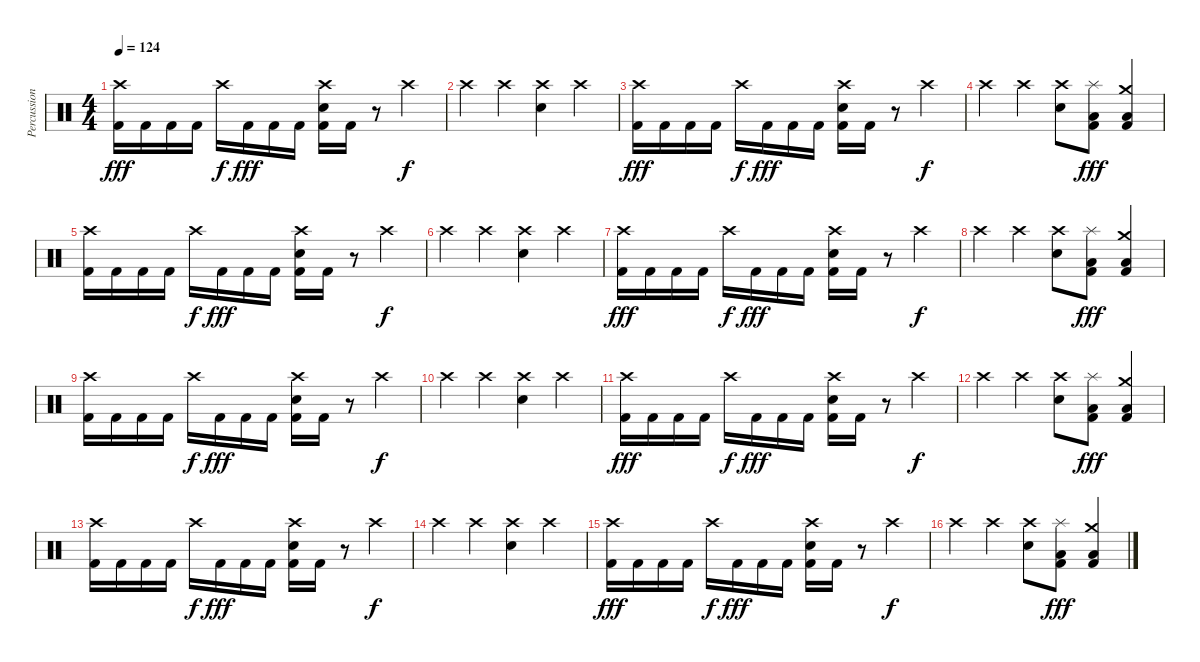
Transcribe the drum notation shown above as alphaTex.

\track ("Percussion" "Percussion") {instrument percussion}
\staff {score}
\articulation defaults
\ts (4 4)
\tempo 124
\clef neutral
\ks c
("Crash high (hit)" "Kick (hit) 2").16{dy fff} "Kick (hit) 2".16 "Kick (hit) 2".16 "Kick (hit) 2".16 "Crash high (hit)".16{dy f} "Kick (hit) 2".16{dy fff} "Kick (hit) 2".16 "Kick (hit) 2".16 ("Crash high (hit)" "Snare (hit) 2" "Kick (hit) 2").16 "Kick (hit) 2".16 r.8 "Crash high (hit)".4{dy f} |
"Crash high (hit)".4 "Crash high (hit)".4 ("Crash high (hit)" "Snare (hit) 2").4 "Crash high (hit)".4 |
("Crash high (hit)" "Kick (hit) 2").16{dy fff} "Kick (hit) 2".16 "Kick (hit) 2".16 "Kick (hit) 2".16 "Crash high (hit)".16{dy f} "Kick (hit) 2".16{dy fff} "Kick (hit) 2".16 "Kick (hit) 2".16 ("Crash high (hit)" "Snare (hit) 2" "Kick (hit) 2").16 "Kick (hit) 2".16 r.8 "Crash high (hit)".4{dy f} |
"Crash high (hit)".4 "Crash high (hit)".4 ("Crash high (hit)" "Snare (hit) 2").8 ("Splash (hit)" "Low Tom (hit)" "Kick (hit) 2").8{dy fff} ("Crash medium (hit)" "Low Floor Tom (hit)" "Kick (hit) 2").4 |
("Crash high (hit)" "Kick (hit) 2").16 "Kick (hit) 2".16 "Kick (hit) 2".16 "Kick (hit) 2".16 "Crash high (hit)".16{dy f} "Kick (hit) 2".16{dy fff} "Kick (hit) 2".16 "Kick (hit) 2".16 ("Crash high (hit)" "Snare (hit) 2" "Kick (hit) 2").16 "Kick (hit) 2".16 r.8 "Crash high (hit)".4{dy f} |
"Crash high (hit)".4 "Crash high (hit)".4 ("Crash high (hit)" "Snare (hit) 2").4 "Crash high (hit)".4 |
("Crash high (hit)" "Kick (hit) 2").16{dy fff} "Kick (hit) 2".16 "Kick (hit) 2".16 "Kick (hit) 2".16 "Crash high (hit)".16{dy f} "Kick (hit) 2".16{dy fff} "Kick (hit) 2".16 "Kick (hit) 2".16 ("Crash high (hit)" "Snare (hit) 2" "Kick (hit) 2").16 "Kick (hit) 2".16 r.8 "Crash high (hit)".4{dy f} |
"Crash high (hit)".4 "Crash high (hit)".4 ("Crash high (hit)" "Snare (hit) 2").8 ("Splash (hit)" "Low Tom (hit)" "Kick (hit) 2").8{dy fff} ("Crash medium (hit)" "Low Floor Tom (hit)" "Kick (hit) 2").4 |
("Crash high (hit)" "Kick (hit) 2").16 "Kick (hit) 2".16 "Kick (hit) 2".16 "Kick (hit) 2".16 "Crash high (hit)".16{dy f} "Kick (hit) 2".16{dy fff} "Kick (hit) 2".16 "Kick (hit) 2".16 ("Crash high (hit)" "Snare (hit) 2" "Kick (hit) 2").16 "Kick (hit) 2".16 r.8 "Crash high (hit)".4{dy f} |
"Crash high (hit)".4 "Crash high (hit)".4 ("Crash high (hit)" "Snare (hit) 2").4 "Crash high (hit)".4 |
("Crash high (hit)" "Kick (hit) 2").16{dy fff} "Kick (hit) 2".16 "Kick (hit) 2".16 "Kick (hit) 2".16 "Crash high (hit)".16{dy f} "Kick (hit) 2".16{dy fff} "Kick (hit) 2".16 "Kick (hit) 2".16 ("Crash high (hit)" "Snare (hit) 2" "Kick (hit) 2").16 "Kick (hit) 2".16 r.8 "Crash high (hit)".4{dy f} |
"Crash high (hit)".4 "Crash high (hit)".4 ("Crash high (hit)" "Snare (hit) 2").8 ("Splash (hit)" "Low Tom (hit)" "Kick (hit) 2").8{dy fff} ("Crash medium (hit)" "Low Floor Tom (hit)" "Kick (hit) 2").4 |
("Crash high (hit)" "Kick (hit) 2").16 "Kick (hit) 2".16 "Kick (hit) 2".16 "Kick (hit) 2".16 "Crash high (hit)".16{dy f} "Kick (hit) 2".16{dy fff} "Kick (hit) 2".16 "Kick (hit) 2".16 ("Crash high (hit)" "Snare (hit) 2" "Kick (hit) 2").16 "Kick (hit) 2".16 r.8 "Crash high (hit)".4{dy f} |
"Crash high (hit)".4 "Crash high (hit)".4 ("Crash high (hit)" "Snare (hit) 2").4 "Crash high (hit)".4 |
("Crash high (hit)" "Kick (hit) 2").16{dy fff} "Kick (hit) 2".16 "Kick (hit) 2".16 "Kick (hit) 2".16 "Crash high (hit)".16{dy f} "Kick (hit) 2".16{dy fff} "Kick (hit) 2".16 "Kick (hit) 2".16 ("Crash high (hit)" "Snare (hit) 2" "Kick (hit) 2").16 "Kick (hit) 2".16 r.8 "Crash high (hit)".4{dy f} |
"Crash high (hit)".4 "Crash high (hit)".4 ("Crash high (hit)" "Snare (hit) 2").8 ("Splash (hit)" "Low Tom (hit)" "Kick (hit) 2").8{dy fff} ("Crash medium (hit)" "Low Floor Tom (hit)" "Kick (hit) 2").4
